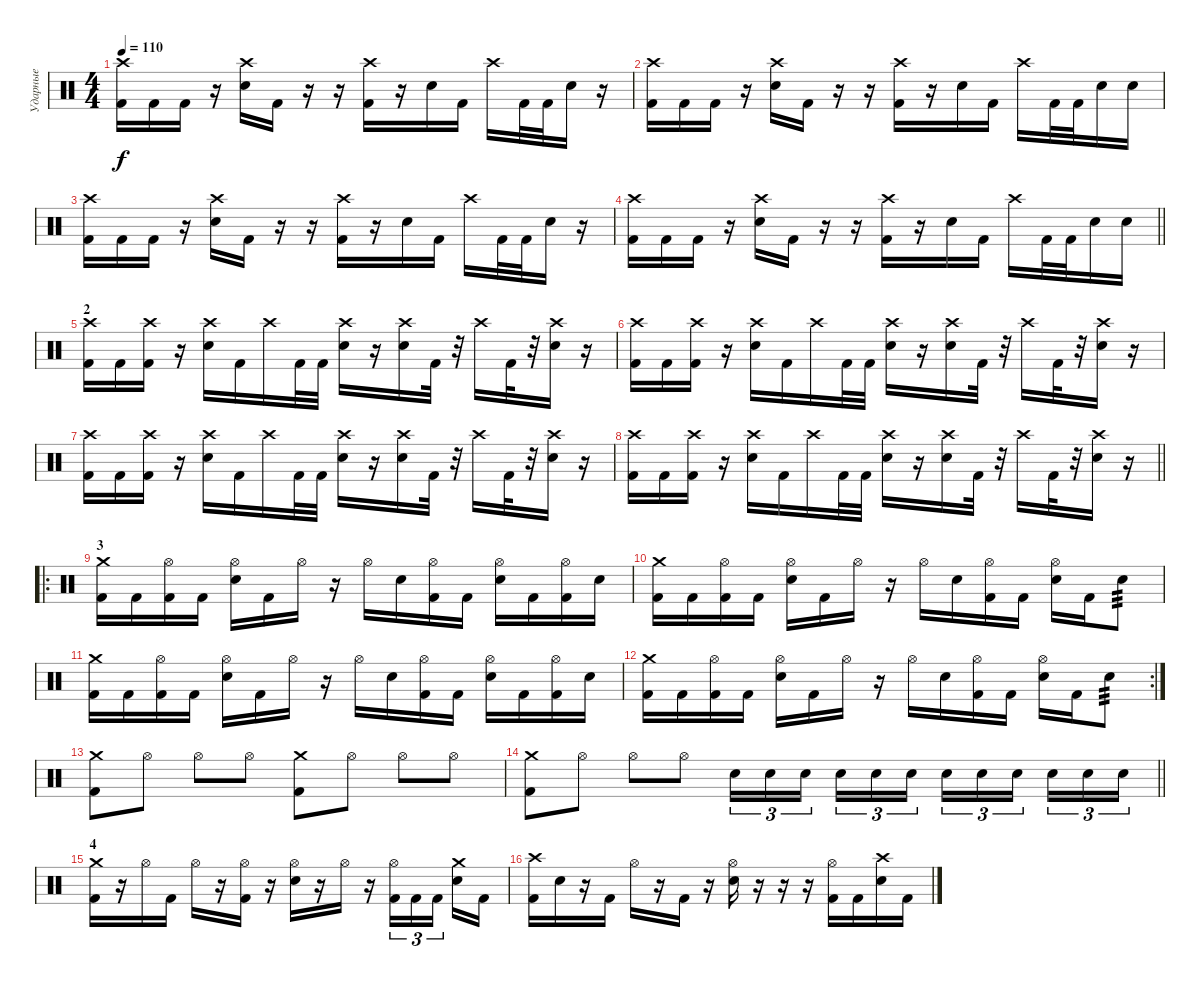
\track ("Ударные" "Ударные") {instrument percussion}
\staff {score}
\articulation defaults
\ts (4 4)
\tempo 110
\clef neutral
\ks c
("Crash high (hit)" "Kick (hit) 2").16{dy f} "Kick (hit) 2".16 "Kick (hit) 2".16 r.16 ("Crash high (hit)" "Electric Snare (hit)").16 "Kick (hit) 2".16 r.16 r.16 ("Crash high (hit)" "Kick (hit) 2").16 r.16 "Electric Snare (hit)".16 "Kick (hit) 2".16 "Crash high (hit)".16 "Kick (hit) 2".32 "Kick (hit) 2".32 "Electric Snare (hit)".16 r.16 |
("Crash high (hit)" "Kick (hit) 2").16 "Kick (hit) 2".16 "Kick (hit) 2".16 r.16 ("Crash high (hit)" "Electric Snare (hit)").16 "Kick (hit) 2".16 r.16 r.16 ("Crash high (hit)" "Kick (hit) 2").16 r.16 "Electric Snare (hit)".16 "Kick (hit) 2".16 "Crash high (hit)".16 "Kick (hit) 2".32 "Kick (hit) 2".32 "Electric Snare (hit)".16 "Electric Snare (hit)".16 |
("Crash high (hit)" "Kick (hit) 2").16 "Kick (hit) 2".16 "Kick (hit) 2".16 r.16 ("Crash high (hit)" "Electric Snare (hit)").16 "Kick (hit) 2".16 r.16 r.16 ("Crash high (hit)" "Kick (hit) 2").16 r.16 "Electric Snare (hit)".16 "Kick (hit) 2".16 "Crash high (hit)".16 "Kick (hit) 2".32 "Kick (hit) 2".32 "Electric Snare (hit)".16 r.16 |
\barLineRight lightlight
("Crash high (hit)" "Kick (hit) 2").16 "Kick (hit) 2".16 "Kick (hit) 2".16 r.16 ("Crash high (hit)" "Electric Snare (hit)").16 "Kick (hit) 2".16 r.16 r.16 ("Crash high (hit)" "Kick (hit) 2").16 r.16 "Electric Snare (hit)".16 "Kick (hit) 2".16 "Crash high (hit)".16 "Kick (hit) 2".32 "Kick (hit) 2".32 "Electric Snare (hit)".16 "Electric Snare (hit)".16 |
\section ("" "2")
("Crash high (hit)" "Kick (hit) 2").16 "Kick (hit) 2".16 ("Crash high (hit)" "Kick (hit) 2").16 r.16 ("Crash high (hit)" "Electric Snare (hit)").16 "Kick (hit) 2".16 "Crash high (hit)".16 "Kick (hit) 2".32 "Kick (hit) 2".32 ("Crash high (hit)" "Electric Snare (hit)").16 r.16 ("Crash high (hit)" "Electric Snare (hit)").16 "Kick (hit) 2".32 r.32 "Crash high (hit)".16 "Kick (hit) 2".32 r.32 ("Crash high (hit)" "Electric Snare (hit)").16 r.16 |
("Crash high (hit)" "Kick (hit) 2").16 "Kick (hit) 2".16 ("Crash high (hit)" "Kick (hit) 2").16 r.16 ("Crash high (hit)" "Electric Snare (hit)").16 "Kick (hit) 2".16 "Crash high (hit)".16 "Kick (hit) 2".32 "Kick (hit) 2".32 ("Crash high (hit)" "Electric Snare (hit)").16 r.16 ("Crash high (hit)" "Electric Snare (hit)").16 "Kick (hit) 2".32 r.32 "Crash high (hit)".16 "Kick (hit) 2".32 r.32 ("Crash high (hit)" "Electric Snare (hit)").16 r.16 |
("Crash high (hit)" "Kick (hit) 2").16 "Kick (hit) 2".16 ("Crash high (hit)" "Kick (hit) 2").16 r.16 ("Crash high (hit)" "Electric Snare (hit)").16 "Kick (hit) 2".16 "Crash high (hit)".16 "Kick (hit) 2".32 "Kick (hit) 2".32 ("Crash high (hit)" "Electric Snare (hit)").16 r.16 ("Crash high (hit)" "Electric Snare (hit)").16 "Kick (hit) 2".32 r.32 "Crash high (hit)".16 "Kick (hit) 2".32 r.32 ("Crash high (hit)" "Electric Snare (hit)").16 r.16 |
\barLineRight lightlight
("Crash high (hit)" "Kick (hit) 2").16 "Kick (hit) 2".16 ("Crash high (hit)" "Kick (hit) 2").16 r.16 ("Crash high (hit)" "Electric Snare (hit)").16 "Kick (hit) 2".16 "Crash high (hit)".16 "Kick (hit) 2".32 "Kick (hit) 2".32 ("Crash high (hit)" "Electric Snare (hit)").16 r.16 ("Crash high (hit)" "Electric Snare (hit)").16 "Kick (hit) 2".32 r.32 "Crash high (hit)".16 "Kick (hit) 2".32 r.32 ("Crash high (hit)" "Electric Snare (hit)").16 r.16 |
\ro
\section ("" "3")
("Crash medium (hit)" "Kick (hit) 2").16 "Kick (hit) 2".16 ("Hi-Hat (open)" "Kick (hit) 2").16 "Kick (hit) 2".16 ("Hi-Hat (open)" "Electric Snare (hit)").16 "Kick (hit) 2".16 "Hi-Hat (open)".16 r.16 "Hi-Hat (open)".16 "Electric Snare (hit)".16 ("Hi-Hat (open)" "Kick (hit) 2").16 "Kick (hit) 2".16 ("Hi-Hat (open)" "Electric Snare (hit)").16 "Kick (hit) 2".16 ("Hi-Hat (open)" "Kick (hit) 2").16 "Electric Snare (hit)".16 |
("Crash medium (hit)" "Kick (hit) 2").16 "Kick (hit) 2".16 ("Hi-Hat (open)" "Kick (hit) 2").16 "Kick (hit) 2".16 ("Hi-Hat (open)" "Electric Snare (hit)").16 "Kick (hit) 2".16 "Hi-Hat (open)".16 r.16 "Hi-Hat (open)".16 "Electric Snare (hit)".16 ("Hi-Hat (open)" "Kick (hit) 2").16 "Kick (hit) 2".16 ("Hi-Hat (open)" "Electric Snare (hit)").16 "Kick (hit) 2".16 "Electric Snare (hit)".8{tp 3} |
("Crash medium (hit)" "Kick (hit) 2").16 "Kick (hit) 2".16 ("Hi-Hat (open)" "Kick (hit) 2").16 "Kick (hit) 2".16 ("Hi-Hat (open)" "Electric Snare (hit)").16 "Kick (hit) 2".16 "Hi-Hat (open)".16 r.16 "Hi-Hat (open)".16 "Electric Snare (hit)".16 ("Hi-Hat (open)" "Kick (hit) 2").16 "Kick (hit) 2".16 ("Hi-Hat (open)" "Electric Snare (hit)").16 "Kick (hit) 2".16 ("Hi-Hat (open)" "Kick (hit) 2").16 "Electric Snare (hit)".16 |
\rc 2
("Crash medium (hit)" "Kick (hit) 2").16 "Kick (hit) 2".16 ("Hi-Hat (open)" "Kick (hit) 2").16 "Kick (hit) 2".16 ("Hi-Hat (open)" "Electric Snare (hit)").16 "Kick (hit) 2".16 "Hi-Hat (open)".16 r.16 "Hi-Hat (open)".16 "Electric Snare (hit)".16 ("Hi-Hat (open)" "Kick (hit) 2").16 "Kick (hit) 2".16 ("Hi-Hat (open)" "Electric Snare (hit)").16 "Kick (hit) 2".16 "Electric Snare (hit)".8{tp 3} |
("Crash medium (hit)" "Kick (hit) 2").8 "Hi-Hat (open)".8 "Hi-Hat (open)".8 "Hi-Hat (open)".8 ("Crash medium (hit)" "Kick (hit) 2").8 "Hi-Hat (open)".8 "Hi-Hat (open)".8 "Hi-Hat (open)".8 |
\barLineRight lightlight
("Crash medium (hit)" "Kick (hit) 2").8 "Hi-Hat (open)".8 "Hi-Hat (open)".8 "Hi-Hat (open)".8 "Electric Snare (hit)".16{tu (3 2)} "Electric Snare (hit)".16{tu (3 2)} "Electric Snare (hit)".16{tu (3 2) beam splitsecondary} "Electric Snare (hit)".16{tu (3 2)} "Electric Snare (hit)".16{tu (3 2)} "Electric Snare (hit)".16{tu (3 2)} "Electric Snare (hit)".16{tu (3 2)} "Electric Snare (hit)".16{tu (3 2)} "Electric Snare (hit)".16{tu (3 2) beam splitsecondary} "Electric Snare (hit)".16{tu (3 2)} "Electric Snare (hit)".16{tu (3 2)} "Electric Snare (hit)".16{tu (3 2)} |
\section ("" "4")
("Crash medium (hit)" "Kick (hit) 2").16 r.16 "Hi-Hat (open)".16 "Kick (hit) 2".16 "Hi-Hat (open)".16 r.16 ("Hi-Hat (open)" "Kick (hit) 2").16 r.16 ("Hi-Hat (open)" "Electric Snare (hit)").16 r.16 "Hi-Hat (open)".16 r.16 ("Hi-Hat (open)" "Kick (hit) 2").16{tu (3 2)} "Kick (hit) 2".16{tu (3 2)} "Kick (hit) 2".16{tu (3 2) beam splitsecondary} ("Crash medium (hit)" "Electric Snare (hit)").16 "Kick (hit) 2".16 |
("Crash high (hit)" "Kick (hit) 2").16 "Electric Snare (hit)".16 r.16 "Kick (hit) 2".16 "Hi-Hat (open)".16 r.16 "Kick (hit) 2".16 r.16 ("Hi-Hat (open)" "Electric Snare (hit)").16 r.16 r.16 r.16 ("Hi-Hat (open)" "Kick (hit) 2").16 "Kick (hit) 2".16 ("Crash high (hit)" "Electric Snare (hit)").16 "Kick (hit) 2".16
